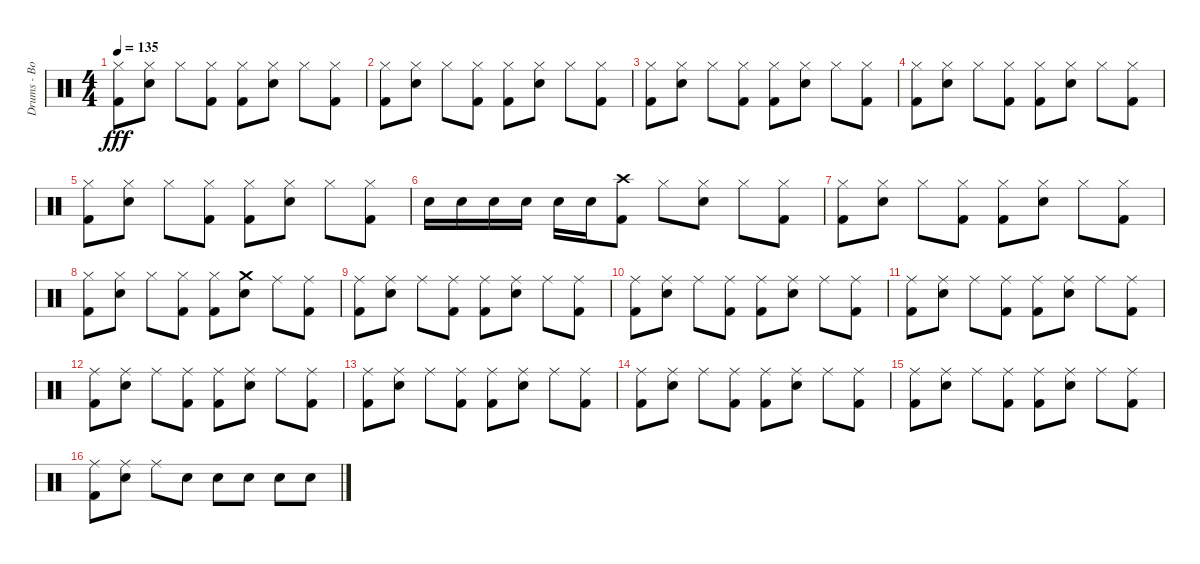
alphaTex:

\track ("Drums - Bobby Schayer" "Drums - Bo") {instrument percussion}
\staff {score}
\articulation defaults
\ts (4 4)
\tempo 135
\clef neutral
\ks c
("Hi-Hat (closed)" "Kick (hit) 2").8{dy fff} ("Hi-Hat (closed)" "Electric Snare (hit)").8 "Hi-Hat (closed)".8 ("Hi-Hat (closed)" "Kick (hit) 2").8 ("Hi-Hat (closed)" "Kick (hit) 2").8 ("Hi-Hat (closed)" "Electric Snare (hit)").8 "Hi-Hat (closed)".8 ("Hi-Hat (closed)" "Kick (hit) 2").8 |
("Hi-Hat (closed)" "Kick (hit) 2").8 ("Hi-Hat (closed)" "Electric Snare (hit)").8 "Hi-Hat (closed)".8 ("Hi-Hat (closed)" "Kick (hit) 2").8 ("Hi-Hat (closed)" "Kick (hit) 2").8 ("Hi-Hat (closed)" "Electric Snare (hit)").8 "Hi-Hat (closed)".8 ("Hi-Hat (closed)" "Kick (hit) 2").8 |
("Hi-Hat (closed)" "Kick (hit) 2").8 ("Hi-Hat (closed)" "Electric Snare (hit)").8 "Hi-Hat (closed)".8 ("Hi-Hat (closed)" "Kick (hit) 2").8 ("Hi-Hat (closed)" "Kick (hit) 2").8 ("Hi-Hat (closed)" "Electric Snare (hit)").8 "Hi-Hat (closed)".8 ("Hi-Hat (closed)" "Kick (hit) 2").8 |
("Hi-Hat (closed)" "Kick (hit) 2").8 ("Hi-Hat (closed)" "Electric Snare (hit)").8 "Hi-Hat (closed)".8 ("Hi-Hat (closed)" "Kick (hit) 2").8 ("Hi-Hat (closed)" "Kick (hit) 2").8 ("Hi-Hat (closed)" "Electric Snare (hit)").8 "Hi-Hat (closed)".8 ("Hi-Hat (closed)" "Kick (hit) 2").8 |
("Hi-Hat (closed)" "Kick (hit) 2").8 ("Hi-Hat (closed)" "Electric Snare (hit)").8 "Hi-Hat (closed)".8 ("Hi-Hat (closed)" "Kick (hit) 2").8 ("Hi-Hat (closed)" "Kick (hit) 2").8 ("Hi-Hat (closed)" "Electric Snare (hit)").8 "Hi-Hat (closed)".8 ("Hi-Hat (closed)" "Kick (hit) 2").8 |
"Electric Snare (hit)".16 "Electric Snare (hit)".16 "Electric Snare (hit)".16 "Electric Snare (hit)".16 "Electric Snare (hit)".16 "Electric Snare (hit)".16 ("Crash high (hit)" "Kick (hit) 2").8 "Hi-Hat (closed)".8 ("Hi-Hat (closed)" "Electric Snare (hit)").8 "Hi-Hat (closed)".8 ("Hi-Hat (closed)" "Kick (hit) 2").8 |
("Hi-Hat (closed)" "Kick (hit) 2").8 ("Hi-Hat (closed)" "Electric Snare (hit)").8 "Hi-Hat (closed)".8 ("Hi-Hat (closed)" "Kick (hit) 2").8 ("Hi-Hat (closed)" "Kick (hit) 2").8 ("Hi-Hat (closed)" "Electric Snare (hit)").8 "Hi-Hat (closed)".8 ("Hi-Hat (closed)" "Kick (hit) 2").8 |
("Hi-Hat (closed)" "Kick (hit) 2").8 ("Hi-Hat (closed)" "Electric Snare (hit)").8 "Hi-Hat (closed)".8 ("Hi-Hat (closed)" "Kick (hit) 2").8 ("Hi-Hat (closed)" "Kick (hit) 2").8 ("Crash medium (hit)" "Electric Snare (hit)").8 "Ride (middle)".8 ("Ride (middle)" "Kick (hit) 2").8 |
("Ride (middle)" "Kick (hit) 2").8 ("Ride (middle)" "Electric Snare (hit)").8 "Ride (middle)".8 ("Ride (middle)" "Kick (hit) 2").8 ("Ride (middle)" "Kick (hit) 2").8 ("Ride (middle)" "Electric Snare (hit)").8 "Ride (middle)".8 ("Ride (middle)" "Kick (hit) 2").8 |
("Ride (middle)" "Kick (hit) 2").8 ("Ride (middle)" "Electric Snare (hit)").8 "Ride (middle)".8 ("Ride (middle)" "Kick (hit) 2").8 ("Ride (middle)" "Kick (hit) 2").8 ("Ride (middle)" "Electric Snare (hit)").8 "Ride (middle)".8 ("Ride (middle)" "Kick (hit) 2").8 |
("Ride (middle)" "Kick (hit) 2").8 ("Ride (middle)" "Electric Snare (hit)").8 "Ride (middle)".8 ("Ride (middle)" "Kick (hit) 2").8 ("Ride (middle)" "Kick (hit) 2").8 ("Ride (middle)" "Electric Snare (hit)").8 "Ride (middle)".8 ("Ride (middle)" "Kick (hit) 2").8 |
("Ride (middle)" "Kick (hit) 2").8 ("Ride (middle)" "Electric Snare (hit)").8 "Ride (middle)".8 ("Ride (middle)" "Kick (hit) 2").8 ("Ride (middle)" "Kick (hit) 2").8 ("Ride (middle)" "Electric Snare (hit)").8 "Ride (middle)".8 ("Ride (middle)" "Kick (hit) 2").8 |
("Ride (middle)" "Kick (hit) 2").8 ("Ride (middle)" "Electric Snare (hit)").8 "Ride (middle)".8 ("Ride (middle)" "Kick (hit) 2").8 ("Ride (middle)" "Kick (hit) 2").8 ("Ride (middle)" "Electric Snare (hit)").8 "Ride (middle)".8 ("Ride (middle)" "Kick (hit) 2").8 |
("Ride (middle)" "Kick (hit) 2").8 ("Ride (middle)" "Electric Snare (hit)").8 "Ride (middle)".8 ("Ride (middle)" "Kick (hit) 2").8 ("Ride (middle)" "Kick (hit) 2").8 ("Ride (middle)" "Electric Snare (hit)").8 "Ride (middle)".8 ("Ride (middle)" "Kick (hit) 2").8 |
("Ride (middle)" "Kick (hit) 2").8 ("Ride (middle)" "Electric Snare (hit)").8 "Ride (middle)".8 ("Ride (middle)" "Kick (hit) 2").8 ("Ride (middle)" "Kick (hit) 2").8 ("Ride (middle)" "Electric Snare (hit)").8 "Ride (middle)".8 ("Ride (middle)" "Kick (hit) 2").8 |
("Ride (middle)" "Kick (hit) 2").8 ("Ride (middle)" "Electric Snare (hit)").8 "Ride (middle)".8 "Electric Snare (hit)".8 "Electric Snare (hit)".8 "Electric Snare (hit)".8 "Electric Snare (hit)".8 "Electric Snare (hit)".8
